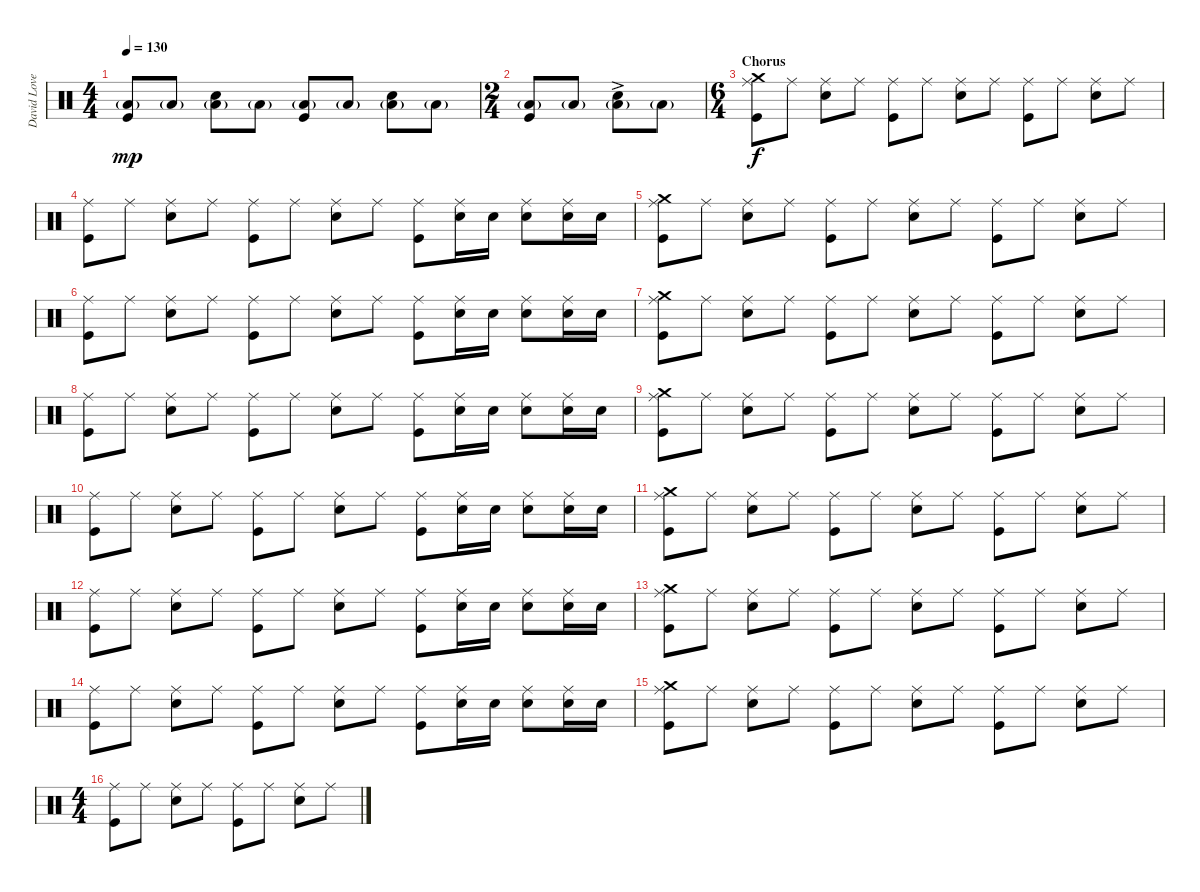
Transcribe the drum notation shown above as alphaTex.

\track ("David Lovering" "David Love") {instrument percussion}
\staff {score}
\articulation defaults
\ts (4 4)
\tempo 130
\clef neutral
\ks c
("Low Floor Tom (hit)"{g} "Kick (hit)").8{dy mp} "Low Floor Tom (hit)"{g}.8 ("Snare (hit) 2" "Low Floor Tom (hit)"{g}).8 "Low Floor Tom (hit)"{g}.8 ("Low Floor Tom (hit)"{g} "Kick (hit)").8 "Low Floor Tom (hit)"{g}.8 ("Snare (hit) 2" "Low Floor Tom (hit)"{g}).8 "Low Floor Tom (hit)"{g}.8 |
\ts (2 4)
("Low Floor Tom (hit)"{g} "Kick (hit)").8 "Low Floor Tom (hit)"{g}.8 ("Snare (hit) 2"{ac} "Low Floor Tom (hit)"{g}).8 "Low Floor Tom (hit)"{g}.8 |
\ts (6 4)
\section ("" "Chorus")
("Ride (middle)" "Crash medium (hit)" "Kick (hit)").8{dy f} "Ride (middle)".8 ("Ride (middle)" "Snare (hit) 2").8 "Ride (middle)".8 ("Ride (middle)" "Kick (hit)").8 "Ride (middle)".8 ("Ride (middle)" "Snare (hit) 2").8 "Ride (middle)".8 ("Ride (middle)" "Kick (hit)").8 "Ride (middle)".8 ("Ride (middle)" "Snare (hit) 2").8 "Ride (middle)".8 |
("Ride (middle)" "Kick (hit)").8 "Ride (middle)".8 ("Ride (middle)" "Snare (hit) 2").8 "Ride (middle)".8 ("Ride (middle)" "Kick (hit)").8 "Ride (middle)".8 ("Ride (middle)" "Snare (hit) 2").8 "Ride (middle)".8 ("Ride (middle)" "Kick (hit)").8 ("Ride (middle)" "Snare (hit) 2").16 "Snare (hit) 2".16 ("Ride (middle)" "Snare (hit) 2").8 ("Ride (middle)" "Snare (hit) 2").16 "Snare (hit) 2".16 |
("Ride (middle)" "Crash medium (hit)" "Kick (hit)").8 "Ride (middle)".8 ("Ride (middle)" "Snare (hit) 2").8 "Ride (middle)".8 ("Ride (middle)" "Kick (hit)").8 "Ride (middle)".8 ("Ride (middle)" "Snare (hit) 2").8 "Ride (middle)".8 ("Ride (middle)" "Kick (hit)").8 "Ride (middle)".8 ("Ride (middle)" "Snare (hit) 2").8 "Ride (middle)".8 |
("Ride (middle)" "Kick (hit)").8 "Ride (middle)".8 ("Ride (middle)" "Snare (hit) 2").8 "Ride (middle)".8 ("Ride (middle)" "Kick (hit)").8 "Ride (middle)".8 ("Ride (middle)" "Snare (hit) 2").8 "Ride (middle)".8 ("Ride (middle)" "Kick (hit)").8 ("Ride (middle)" "Snare (hit) 2").16 "Snare (hit) 2".16 ("Ride (middle)" "Snare (hit) 2").8 ("Ride (middle)" "Snare (hit) 2").16 "Snare (hit) 2".16 |
("Ride (middle)" "Crash medium (hit)" "Kick (hit)").8 "Ride (middle)".8 ("Ride (middle)" "Snare (hit) 2").8 "Ride (middle)".8 ("Ride (middle)" "Kick (hit)").8 "Ride (middle)".8 ("Ride (middle)" "Snare (hit) 2").8 "Ride (middle)".8 ("Ride (middle)" "Kick (hit)").8 "Ride (middle)".8 ("Ride (middle)" "Snare (hit) 2").8 "Ride (middle)".8 |
("Ride (middle)" "Kick (hit)").8 "Ride (middle)".8 ("Ride (middle)" "Snare (hit) 2").8 "Ride (middle)".8 ("Ride (middle)" "Kick (hit)").8 "Ride (middle)".8 ("Ride (middle)" "Snare (hit) 2").8 "Ride (middle)".8 ("Ride (middle)" "Kick (hit)").8 ("Ride (middle)" "Snare (hit) 2").16 "Snare (hit) 2".16 ("Ride (middle)" "Snare (hit) 2").8 ("Ride (middle)" "Snare (hit) 2").16 "Snare (hit) 2".16 |
("Ride (middle)" "Crash medium (hit)" "Kick (hit)").8 "Ride (middle)".8 ("Ride (middle)" "Snare (hit) 2").8 "Ride (middle)".8 ("Ride (middle)" "Kick (hit)").8 "Ride (middle)".8 ("Ride (middle)" "Snare (hit) 2").8 "Ride (middle)".8 ("Ride (middle)" "Kick (hit)").8 "Ride (middle)".8 ("Ride (middle)" "Snare (hit) 2").8 "Ride (middle)".8 |
("Ride (middle)" "Kick (hit)").8 "Ride (middle)".8 ("Ride (middle)" "Snare (hit) 2").8 "Ride (middle)".8 ("Ride (middle)" "Kick (hit)").8 "Ride (middle)".8 ("Ride (middle)" "Snare (hit) 2").8 "Ride (middle)".8 ("Ride (middle)" "Kick (hit)").8 ("Ride (middle)" "Snare (hit) 2").16 "Snare (hit) 2".16 ("Ride (middle)" "Snare (hit) 2").8 ("Ride (middle)" "Snare (hit) 2").16 "Snare (hit) 2".16 |
\section ("" "")
("Ride (middle)" "Crash medium (hit)" "Kick (hit)").8 "Ride (middle)".8 ("Ride (middle)" "Snare (hit) 2").8 "Ride (middle)".8 ("Ride (middle)" "Kick (hit)").8 "Ride (middle)".8 ("Ride (middle)" "Snare (hit) 2").8 "Ride (middle)".8 ("Ride (middle)" "Kick (hit)").8 "Ride (middle)".8 ("Ride (middle)" "Snare (hit) 2").8 "Ride (middle)".8 |
("Ride (middle)" "Kick (hit)").8 "Ride (middle)".8 ("Ride (middle)" "Snare (hit) 2").8 "Ride (middle)".8 ("Ride (middle)" "Kick (hit)").8 "Ride (middle)".8 ("Ride (middle)" "Snare (hit) 2").8 "Ride (middle)".8 ("Ride (middle)" "Kick (hit)").8 ("Ride (middle)" "Snare (hit) 2").16 "Snare (hit) 2".16 ("Ride (middle)" "Snare (hit) 2").8 ("Ride (middle)" "Snare (hit) 2").16 "Snare (hit) 2".16 |
("Ride (middle)" "Crash medium (hit)" "Kick (hit)").8 "Ride (middle)".8 ("Ride (middle)" "Snare (hit) 2").8 "Ride (middle)".8 ("Ride (middle)" "Kick (hit)").8 "Ride (middle)".8 ("Ride (middle)" "Snare (hit) 2").8 "Ride (middle)".8 ("Ride (middle)" "Kick (hit)").8 "Ride (middle)".8 ("Ride (middle)" "Snare (hit) 2").8 "Ride (middle)".8 |
("Ride (middle)" "Kick (hit)").8 "Ride (middle)".8 ("Ride (middle)" "Snare (hit) 2").8 "Ride (middle)".8 ("Ride (middle)" "Kick (hit)").8 "Ride (middle)".8 ("Ride (middle)" "Snare (hit) 2").8 "Ride (middle)".8 ("Ride (middle)" "Kick (hit)").8 ("Ride (middle)" "Snare (hit) 2").16 "Snare (hit) 2".16 ("Ride (middle)" "Snare (hit) 2").8 ("Ride (middle)" "Snare (hit) 2").16 "Snare (hit) 2".16 |
("Ride (middle)" "Crash medium (hit)" "Kick (hit)").8 "Ride (middle)".8 ("Ride (middle)" "Snare (hit) 2").8 "Ride (middle)".8 ("Ride (middle)" "Kick (hit)").8 "Ride (middle)".8 ("Ride (middle)" "Snare (hit) 2").8 "Ride (middle)".8 ("Ride (middle)" "Kick (hit)").8 "Ride (middle)".8 ("Ride (middle)" "Snare (hit) 2").8 "Ride (middle)".8 |
\ts (4 4)
("Ride (middle)" "Kick (hit)").8 "Ride (middle)".8 ("Ride (middle)" "Snare (hit) 2").8 "Ride (middle)".8 ("Ride (middle)" "Kick (hit)").8 "Ride (middle)".8 ("Ride (middle)" "Snare (hit) 2").8 "Ride (middle)".8
